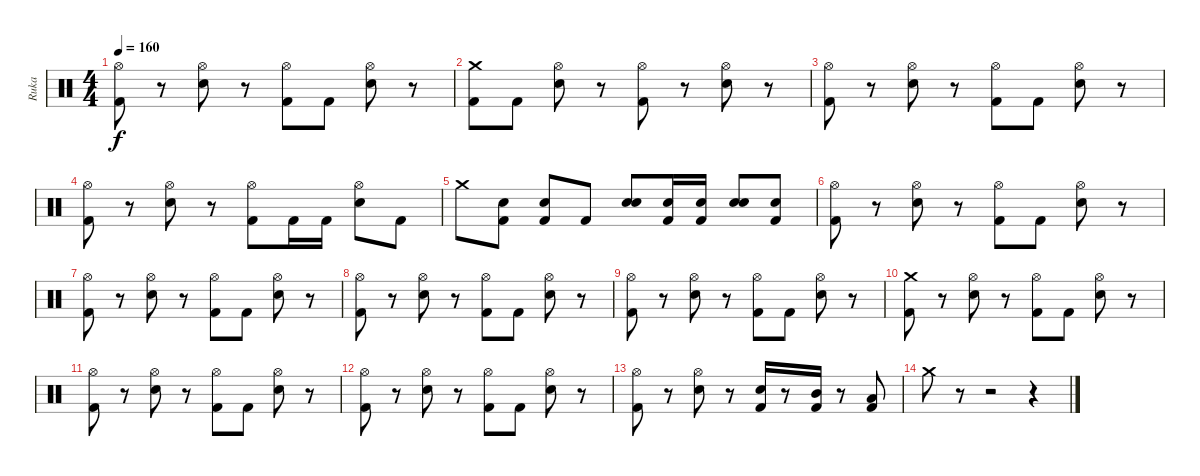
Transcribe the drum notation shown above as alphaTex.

\track ("Ruka" "Ruka") {instrument percussion}
\staff {score}
\articulation defaults
\ts (4 4)
\tempo 160
\clef neutral
\ks c
("Kick (hit) 2" "Hi-Hat (open)").8{dy f} r.8 ("Electric Snare (hit)" "Hi-Hat (open)").8 r.8 ("Kick (hit) 2" "Hi-Hat (open)").8 "Kick (hit) 2".8 ("Electric Snare (hit)" "Hi-Hat (open)").8 r.8 |
("Kick (hit) 2" "Crash medium (hit)").8 "Kick (hit) 2".8 ("Electric Snare (hit)" "Hi-Hat (open)").8 r.8 ("Kick (hit) 2" "Hi-Hat (open)").8 r.8 ("Electric Snare (hit)" "Hi-Hat (open)").8 r.8 |
("Kick (hit) 2" "Hi-Hat (open)").8 r.8 ("Electric Snare (hit)" "Hi-Hat (open)").8 r.8 ("Kick (hit) 2" "Hi-Hat (open)").8 "Kick (hit) 2".8 ("Electric Snare (hit)" "Hi-Hat (open)").8 r.8 |
("Kick (hit) 2" "Hi-Hat (open)").8 r.8 ("Electric Snare (hit)" "Hi-Hat (open)").8 r.8 ("Kick (hit) 2" "Hi-Hat (open)").8 "Kick (hit) 2".16 "Kick (hit) 2".16 ("Electric Snare (hit)" "Hi-Hat (open)").8 "Kick (hit) 2".8 |
"Crash medium (hit)".8 ("Kick (hit) 2" "Electric Snare (hit)").8 ("Kick (hit) 2" "Electric Snare (hit)").8 "Kick (hit) 2".8 ("Snare (hit) 2" "Electric Snare (hit)").8 ("Kick (hit) 2" "Snare (hit) 2").16 ("Kick (hit) 2" "Snare (hit) 2").16 ("Snare (hit) 2" "Electric Snare (hit)").8 ("Kick (hit) 2" "Snare (hit) 2").8 |
("Kick (hit) 2" "Hi-Hat (open)").8 r.8 ("Electric Snare (hit)" "Hi-Hat (open)").8 r.8 ("Kick (hit) 2" "Hi-Hat (open)").8 "Kick (hit) 2".8 ("Electric Snare (hit)" "Hi-Hat (open)").8 r.8 |
("Kick (hit) 2" "Hi-Hat (open)").8 r.8 ("Electric Snare (hit)" "Hi-Hat (open)").8 r.8 ("Kick (hit) 2" "Hi-Hat (open)").8 "Kick (hit) 2".8 ("Electric Snare (hit)" "Hi-Hat (open)").8 r.8 |
("Kick (hit) 2" "Hi-Hat (open)").8 r.8 ("Electric Snare (hit)" "Hi-Hat (open)").8 r.8 ("Kick (hit) 2" "Hi-Hat (open)").8 "Kick (hit) 2".8 ("Electric Snare (hit)" "Hi-Hat (open)").8 r.8 |
("Kick (hit) 2" "Hi-Hat (open)").8 r.8 ("Electric Snare (hit)" "Hi-Hat (open)").8 r.8 ("Kick (hit) 2" "Hi-Hat (open)").8 "Kick (hit) 2".8 ("Electric Snare (hit)" "Hi-Hat (open)").8 r.8 |
("Kick (hit) 2" "Crash medium (hit)").8 r.8 ("Electric Snare (hit)" "Hi-Hat (open)").8 r.8 ("Kick (hit) 2" "Hi-Hat (open)").8 "Kick (hit) 2".8 ("Electric Snare (hit)" "Hi-Hat (open)").8 r.8 |
("Kick (hit) 2" "Hi-Hat (open)").8 r.8 ("Electric Snare (hit)" "Hi-Hat (open)").8 r.8 ("Kick (hit) 2" "Hi-Hat (open)").8 "Kick (hit) 2".8 ("Electric Snare (hit)" "Hi-Hat (open)").8 r.8 |
("Kick (hit) 2" "Hi-Hat (open)").8 r.8 ("Electric Snare (hit)" "Hi-Hat (open)").8 r.8 ("Kick (hit) 2" "Hi-Hat (open)").8 "Kick (hit) 2".8 ("Electric Snare (hit)" "Hi-Hat (open)").8 r.8 |
("Kick (hit) 2" "Hi-Hat (open)").8 r.8 ("Electric Snare (hit)" "Hi-Hat (open)").8 r.8 ("Kick (hit) 2" "Electric Snare (hit)").16 r.8 ("Kick (hit) 2" "Mid Tom (hit)").16 r.8 ("Kick (hit) 2" "Low Tom (hit)").8 |
"Crash medium (hit)".8 r.8 r.2 r.4
